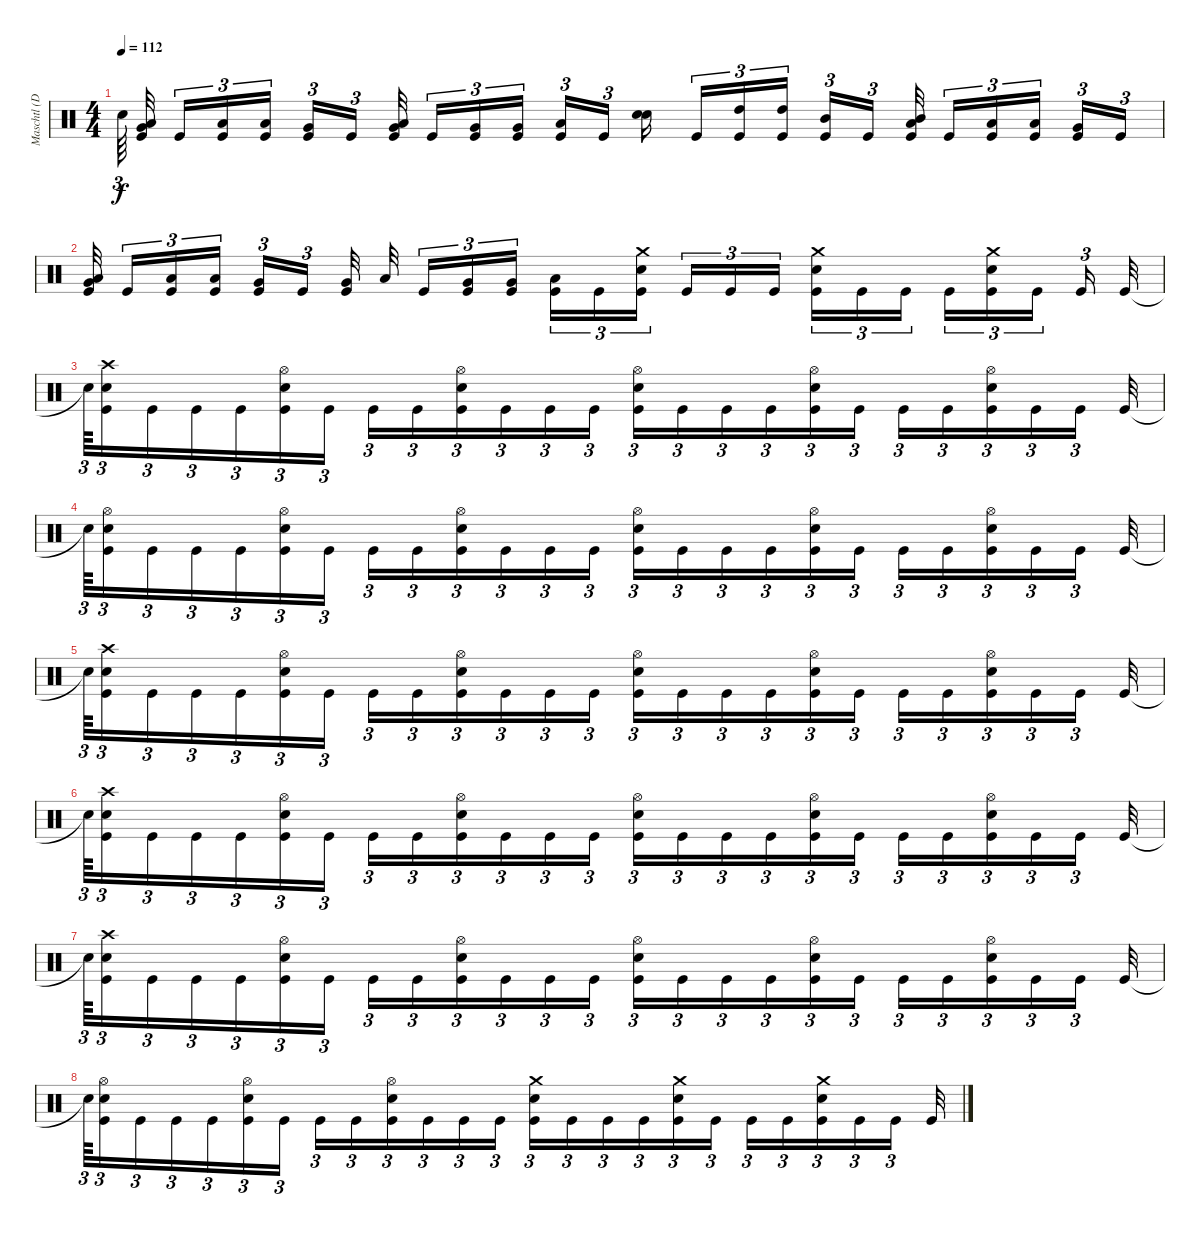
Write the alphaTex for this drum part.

\track ("Maschtl (Drums)" "Maschtl (D") {instrument percussion}
\staff {score}
\articulation defaults
\ts (4 4)
\tempo 112
\clef neutral
\ks c "Snare (hit)"{t}.64{tu (3 2) dy f}
("Kick (hit)" "Very Low Tom (hit)" "Low Tom (hit)").32 "Kick (hit)".16{tu (3 2)} ("Low Tom (hit)" "Kick (hit)").16{tu (3 2)} ("Low Tom (hit)" "Kick (hit)").16{tu (3 2)} ("Very Low Tom (hit)" "Kick (hit)").16{tu (3 2)} "Kick (hit)".16{tu (3 2)} ("Kick (hit)" "Very Low Tom (hit)" "Low Tom (hit)").32 "Kick (hit)".16{tu (3 2)} ("Very Low Tom (hit)" "Kick (hit)").16{tu (3 2)} ("Very Low Tom (hit)" "Kick (hit)").16{tu (3 2)} ("Low Floor Tom (hit)" "Kick (hit)").16{tu (3 2)} "Kick (hit)".16{tu (3 2)} ("Electric Snare (hit)" "Electric Snare (hit)").16 "Kick (hit)".16{tu (3 2)} ("High Tom (hit)" "Kick (hit)").16{tu (3 2)} ("High Tom (hit)" "Kick (hit)").16{tu (3 2)} ("Mid Tom (hit)" "Kick (hit)").16{tu (3 2)} "Kick (hit)".16{tu (3 2)} ("Kick (hit)" "Low Tom (hit)" "Mid Tom (hit)").32 "Kick (hit)".16{tu (3 2)} ("Low Tom (hit)" "Kick (hit)").16{tu (3 2)} ("Low Tom (hit)" "Kick (hit)").16{tu (3 2)} ("Very Low Tom (hit)" "Kick (hit)").16{tu (3 2)} "Kick (hit)".16{tu (3 2)} |
("Kick (hit)" "Very Low Tom (hit)" "Low Tom (hit)").32 "Kick (hit)".16{tu (3 2)} ("Low Tom (hit)" "Kick (hit)").16{tu (3 2)} ("Low Tom (hit)" "Kick (hit)").16{tu (3 2)} ("Very Low Tom (hit)" "Kick (hit)").16{tu (3 2)} "Kick (hit)".16{tu (3 2)} ("Kick (hit)" "Very Low Tom (hit)").32 "Low Tom (hit)".32 "Kick (hit)".16{tu (3 2)} ("Very Low Tom (hit)" "Kick (hit)").16{tu (3 2)} ("Very Low Tom (hit)" "Kick (hit)").16{tu (3 2)} ("Low Floor Tom (hit)" "Kick (hit)").16{tu (3 2)} "Kick (hit)".16{tu (3 2)} ("Crash medium (hit)" "Electric Snare (hit)" "Kick (hit)").16{tu (3 2)} "Kick (hit)".16{tu (3 2)} "Kick (hit)".16{tu (3 2)} "Kick (hit)".16{tu (3 2)} ("Crash medium (hit)" "Electric Snare (hit)" "Kick (hit)").16{tu (3 2)} "Kick (hit)".16{tu (3 2)} "Kick (hit)".16{tu (3 2)} "Kick (hit)".16{tu (3 2)} ("Crash medium (hit)" "Electric Snare (hit)" "Kick (hit)").16{tu (3 2)} "Kick (hit)".16{tu (3 2)} "Kick (hit)".16{tu (3 2)} "Kick (hit)".32 |
"Snare (hit)"{t}.64{tu (3 2)} ("Crash high (hit)" "Electric Snare (hit)" "Kick (hit)").16{tu (3 2)} "Kick (hit)".16{tu (3 2)} "Kick (hit)".16{tu (3 2)} "Kick (hit)".16{tu (3 2)} ("Hi-Hat (open)" "Electric Snare (hit)" "Kick (hit)").16{tu (3 2)} "Kick (hit)".16{tu (3 2)} "Kick (hit)".16{tu (3 2)} "Kick (hit)".16{tu (3 2)} ("Hi-Hat (open)" "Electric Snare (hit)" "Kick (hit)").16{tu (3 2)} "Kick (hit)".16{tu (3 2)} "Kick (hit)".16{tu (3 2)} "Kick (hit)".16{tu (3 2)} ("Hi-Hat (open)" "Electric Snare (hit)" "Kick (hit)").16{tu (3 2)} "Kick (hit)".16{tu (3 2)} "Kick (hit)".16{tu (3 2)} "Kick (hit)".16{tu (3 2)} ("Hi-Hat (open)" "Electric Snare (hit)" "Kick (hit)").16{tu (3 2)} "Kick (hit)".16{tu (3 2)} "Kick (hit)".16{tu (3 2)} "Kick (hit)".16{tu (3 2)} ("Hi-Hat (open)" "Electric Snare (hit)" "Kick (hit)").16{tu (3 2)} "Kick (hit)".16{tu (3 2)} "Kick (hit)".16{tu (3 2)} "Kick (hit)".32 |
"Snare (hit)"{t}.64{tu (3 2)} ("Hi-Hat (open)" "Electric Snare (hit)" "Kick (hit)").16{tu (3 2)} "Kick (hit)".16{tu (3 2)} "Kick (hit)".16{tu (3 2)} "Kick (hit)".16{tu (3 2)} ("Hi-Hat (open)" "Electric Snare (hit)" "Kick (hit)").16{tu (3 2)} "Kick (hit)".16{tu (3 2)} "Kick (hit)".16{tu (3 2)} "Kick (hit)".16{tu (3 2)} ("Hi-Hat (open)" "Electric Snare (hit)" "Kick (hit)").16{tu (3 2)} "Kick (hit)".16{tu (3 2)} "Kick (hit)".16{tu (3 2)} "Kick (hit)".16{tu (3 2)} ("Hi-Hat (open)" "Electric Snare (hit)" "Kick (hit)").16{tu (3 2)} "Kick (hit)".16{tu (3 2)} "Kick (hit)".16{tu (3 2)} "Kick (hit)".16{tu (3 2)} ("Hi-Hat (open)" "Electric Snare (hit)" "Kick (hit)").16{tu (3 2)} "Kick (hit)".16{tu (3 2)} "Kick (hit)".16{tu (3 2)} "Kick (hit)".16{tu (3 2)} ("Hi-Hat (open)" "Electric Snare (hit)" "Kick (hit)").16{tu (3 2)} "Kick (hit)".16{tu (3 2)} "Kick (hit)".16{tu (3 2)} "Kick (hit)".32 |
"Snare (hit)"{t}.64{tu (3 2)} ("Crash high (hit)" "Electric Snare (hit)" "Kick (hit)").16{tu (3 2)} "Kick (hit)".16{tu (3 2)} "Kick (hit)".16{tu (3 2)} "Kick (hit)".16{tu (3 2)} ("Hi-Hat (open)" "Electric Snare (hit)" "Kick (hit)").16{tu (3 2)} "Kick (hit)".16{tu (3 2)} "Kick (hit)".16{tu (3 2)} "Kick (hit)".16{tu (3 2)} ("Hi-Hat (open)" "Electric Snare (hit)" "Kick (hit)").16{tu (3 2)} "Kick (hit)".16{tu (3 2)} "Kick (hit)".16{tu (3 2)} "Kick (hit)".16{tu (3 2)} ("Hi-Hat (open)" "Electric Snare (hit)" "Kick (hit)").16{tu (3 2)} "Kick (hit)".16{tu (3 2)} "Kick (hit)".16{tu (3 2)} "Kick (hit)".16{tu (3 2)} ("Hi-Hat (open)" "Electric Snare (hit)" "Kick (hit)").16{tu (3 2)} "Kick (hit)".16{tu (3 2)} "Kick (hit)".16{tu (3 2)} "Kick (hit)".16{tu (3 2)} ("Hi-Hat (open)" "Electric Snare (hit)" "Kick (hit)").16{tu (3 2)} "Kick (hit)".16{tu (3 2)} "Kick (hit)".16{tu (3 2)} "Kick (hit)".32 |
"Snare (hit)"{t}.64{tu (3 2)} ("Crash high (hit)" "Electric Snare (hit)" "Kick (hit)").16{tu (3 2)} "Kick (hit)".16{tu (3 2)} "Kick (hit)".16{tu (3 2)} "Kick (hit)".16{tu (3 2)} ("Hi-Hat (open)" "Electric Snare (hit)" "Kick (hit)").16{tu (3 2)} "Kick (hit)".16{tu (3 2)} "Kick (hit)".16{tu (3 2)} "Kick (hit)".16{tu (3 2)} ("Hi-Hat (open)" "Electric Snare (hit)" "Kick (hit)").16{tu (3 2)} "Kick (hit)".16{tu (3 2)} "Kick (hit)".16{tu (3 2)} "Kick (hit)".16{tu (3 2)} ("Hi-Hat (open)" "Electric Snare (hit)" "Kick (hit)").16{tu (3 2)} "Kick (hit)".16{tu (3 2)} "Kick (hit)".16{tu (3 2)} "Kick (hit)".16{tu (3 2)} ("Hi-Hat (open)" "Electric Snare (hit)" "Kick (hit)").16{tu (3 2)} "Kick (hit)".16{tu (3 2)} "Kick (hit)".16{tu (3 2)} "Kick (hit)".16{tu (3 2)} ("Hi-Hat (open)" "Electric Snare (hit)" "Kick (hit)").16{tu (3 2)} "Kick (hit)".16{tu (3 2)} "Kick (hit)".16{tu (3 2)} "Kick (hit)".32 |
"Snare (hit)"{t}.64{tu (3 2)} ("Crash high (hit)" "Electric Snare (hit)" "Kick (hit)").16{tu (3 2)} "Kick (hit)".16{tu (3 2)} "Kick (hit)".16{tu (3 2)} "Kick (hit)".16{tu (3 2)} ("Hi-Hat (open)" "Electric Snare (hit)" "Kick (hit)").16{tu (3 2)} "Kick (hit)".16{tu (3 2)} "Kick (hit)".16{tu (3 2)} "Kick (hit)".16{tu (3 2)} ("Hi-Hat (open)" "Electric Snare (hit)" "Kick (hit)").16{tu (3 2)} "Kick (hit)".16{tu (3 2)} "Kick (hit)".16{tu (3 2)} "Kick (hit)".16{tu (3 2)} ("Hi-Hat (open)" "Electric Snare (hit)" "Kick (hit)").16{tu (3 2)} "Kick (hit)".16{tu (3 2)} "Kick (hit)".16{tu (3 2)} "Kick (hit)".16{tu (3 2)} ("Hi-Hat (open)" "Electric Snare (hit)" "Kick (hit)").16{tu (3 2)} "Kick (hit)".16{tu (3 2)} "Kick (hit)".16{tu (3 2)} "Kick (hit)".16{tu (3 2)} ("Hi-Hat (open)" "Electric Snare (hit)" "Kick (hit)").16{tu (3 2)} "Kick (hit)".16{tu (3 2)} "Kick (hit)".16{tu (3 2)} "Kick (hit)".32 |
"Snare (hit)"{t}.64{tu (3 2)} ("Hi-Hat (open)" "Electric Snare (hit)" "Kick (hit)").16{tu (3 2)} "Kick (hit)".16{tu (3 2)} "Kick (hit)".16{tu (3 2)} "Kick (hit)".16{tu (3 2)} ("Hi-Hat (open)" "Electric Snare (hit)" "Kick (hit)").16{tu (3 2)} "Kick (hit)".16{tu (3 2)} "Kick (hit)".16{tu (3 2)} "Kick (hit)".16{tu (3 2)} ("Hi-Hat (open)" "Electric Snare (hit)" "Kick (hit)").16{tu (3 2)} "Kick (hit)".16{tu (3 2)} "Kick (hit)".16{tu (3 2)} "Kick (hit)".16{tu (3 2)} ("Crash medium (hit)" "Electric Snare (hit)" "Kick (hit)").16{tu (3 2)} "Kick (hit)".16{tu (3 2)} "Kick (hit)".16{tu (3 2)} "Kick (hit)".16{tu (3 2)} ("Crash medium (hit)" "Electric Snare (hit)" "Kick (hit)").16{tu (3 2)} "Kick (hit)".16{tu (3 2)} "Kick (hit)".16{tu (3 2)} "Kick (hit)".16{tu (3 2)} ("Crash medium (hit)" "Electric Snare (hit)" "Kick (hit)").16{tu (3 2)} "Kick (hit)".16{tu (3 2)} "Kick (hit)".16{tu (3 2)} "Kick (hit)".32
